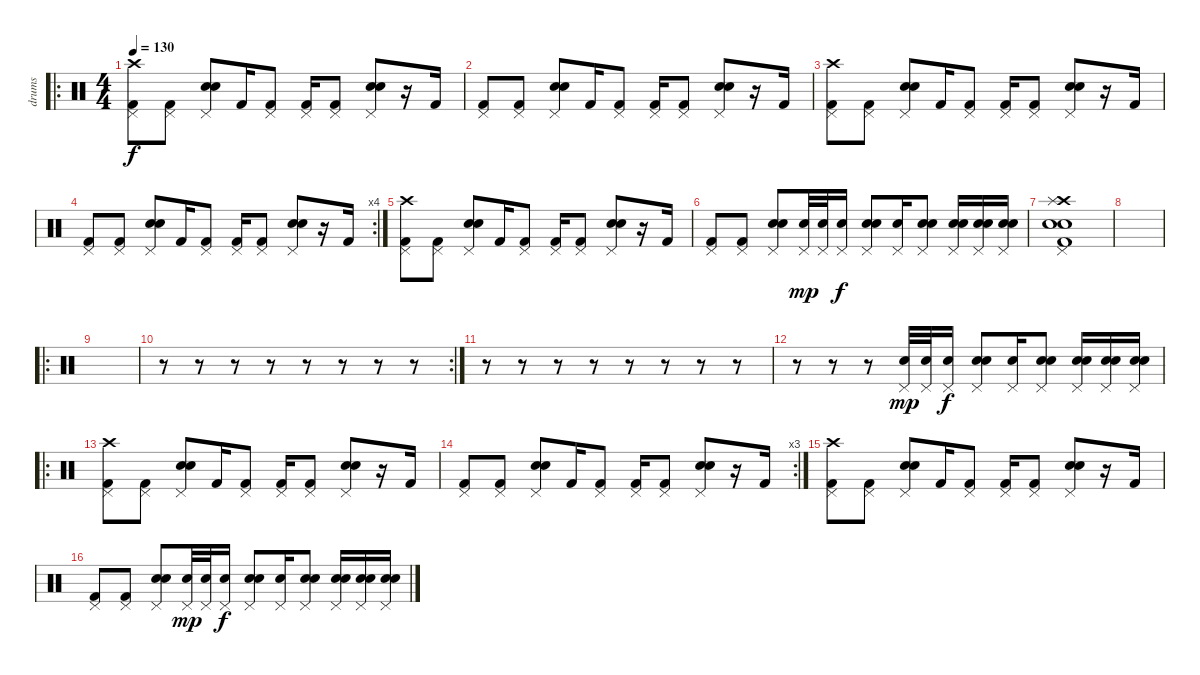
\track ("drums" "drums") {instrument percussion}
\staff {score}
\articulation defaults
\ro
\ts (4 4)
\tempo 130
\clef neutral
\ks c
("Crash high (hit)" "Kick (hit) 2" "Pedal Hi-Hat (hit)").8{dy f} ("Kick (hit) 2" "Pedal Hi-Hat (hit)").8 ("Electric Snare (hit)" "Snare (hit) 2" "Pedal Hi-Hat (hit)").8 "Kick (hit) 2".16 ("Kick (hit) 2" "Pedal Hi-Hat (hit)").8 ("Kick (hit) 2" "Pedal Hi-Hat (hit)").16 ("Kick (hit) 2" "Pedal Hi-Hat (hit)").8 ("Electric Snare (hit)" "Snare (hit) 2" "Pedal Hi-Hat (hit)").8 r.16 "Kick (hit) 2".16 |
("Kick (hit) 2" "Pedal Hi-Hat (hit)").8 ("Kick (hit) 2" "Pedal Hi-Hat (hit)").8 ("Electric Snare (hit)" "Snare (hit) 2" "Pedal Hi-Hat (hit)").8 "Kick (hit) 2".16 ("Kick (hit) 2" "Pedal Hi-Hat (hit)").8 ("Kick (hit) 2" "Pedal Hi-Hat (hit)").16 ("Kick (hit) 2" "Pedal Hi-Hat (hit)").8 ("Electric Snare (hit)" "Snare (hit) 2" "Pedal Hi-Hat (hit)").8 r.16 "Kick (hit) 2".16 |
("Crash high (hit)" "Kick (hit) 2" "Pedal Hi-Hat (hit)").8 ("Kick (hit) 2" "Pedal Hi-Hat (hit)").8 ("Electric Snare (hit)" "Snare (hit) 2" "Pedal Hi-Hat (hit)").8 "Kick (hit) 2".16 ("Kick (hit) 2" "Pedal Hi-Hat (hit)").8 ("Kick (hit) 2" "Pedal Hi-Hat (hit)").16 ("Kick (hit) 2" "Pedal Hi-Hat (hit)").8 ("Electric Snare (hit)" "Snare (hit) 2" "Pedal Hi-Hat (hit)").8 r.16 "Kick (hit) 2".16 |
\rc 4
("Kick (hit) 2" "Pedal Hi-Hat (hit)").8 ("Kick (hit) 2" "Pedal Hi-Hat (hit)").8 ("Electric Snare (hit)" "Snare (hit) 2" "Pedal Hi-Hat (hit)").8 "Kick (hit) 2".16 ("Kick (hit) 2" "Pedal Hi-Hat (hit)").8 ("Kick (hit) 2" "Pedal Hi-Hat (hit)").16 ("Kick (hit) 2" "Pedal Hi-Hat (hit)").8 ("Electric Snare (hit)" "Snare (hit) 2" "Pedal Hi-Hat (hit)").8 r.16 "Kick (hit) 2".16 |
("Crash high (hit)" "Kick (hit) 2" "Pedal Hi-Hat (hit)").8 ("Kick (hit) 2" "Pedal Hi-Hat (hit)").8 ("Electric Snare (hit)" "Snare (hit) 2" "Pedal Hi-Hat (hit)").8 "Kick (hit) 2".16 ("Kick (hit) 2" "Pedal Hi-Hat (hit)").8 ("Kick (hit) 2" "Pedal Hi-Hat (hit)").16 ("Kick (hit) 2" "Pedal Hi-Hat (hit)").8 ("Electric Snare (hit)" "Snare (hit) 2" "Pedal Hi-Hat (hit)").8 r.16 "Kick (hit) 2".16 |
("Kick (hit) 2" "Pedal Hi-Hat (hit)").8 ("Kick (hit) 2" "Pedal Hi-Hat (hit)").8 ("Electric Snare (hit)" "Snare (hit) 2" "Pedal Hi-Hat (hit)").8 ("Electric Snare (hit)" "Pedal Hi-Hat (hit)").32{dy mp} ("Electric Snare (hit)" "Pedal Hi-Hat (hit)").32 ("Electric Snare (hit)" "Pedal Hi-Hat (hit)").16{dy f} ("Snare (hit) 2" "Electric Snare (hit)" "Pedal Hi-Hat (hit)").8 ("Electric Snare (hit)" "Pedal Hi-Hat (hit)").16 ("Snare (hit) 2" "Electric Snare (hit)" "Pedal Hi-Hat (hit)").8 ("Snare (hit) 2" "Electric Snare (hit)" "Pedal Hi-Hat (hit)").16 ("Snare (hit) 2" "Electric Snare (hit)" "Pedal Hi-Hat (hit)").16 ("Snare (hit) 2" "Electric Snare (hit)" "Pedal Hi-Hat (hit)").16 |
("Crash high (hit)" "Splash (hit)" "Kick (hit) 2" "Snare (hit) 2" "Electric Snare (hit)" "Pedal Hi-Hat (hit)").1 |
|
\ro
|
\rc 2
r.8 r.8 r.8 r.8 r.8 r.8 r.8 r.8 |
r.8 r.8 r.8 r.8 r.8 r.8 r.8 r.8 |
r.8 r.8 r.8 ("Electric Snare (hit)" "Pedal Hi-Hat (hit)").32{dy mp} ("Electric Snare (hit)" "Pedal Hi-Hat (hit)").32 ("Electric Snare (hit)" "Pedal Hi-Hat (hit)").16{dy f} ("Snare (hit) 2" "Electric Snare (hit)" "Pedal Hi-Hat (hit)").8 ("Electric Snare (hit)" "Pedal Hi-Hat (hit)").16 ("Snare (hit) 2" "Electric Snare (hit)" "Pedal Hi-Hat (hit)").8 ("Snare (hit) 2" "Electric Snare (hit)" "Pedal Hi-Hat (hit)").16 ("Snare (hit) 2" "Electric Snare (hit)" "Pedal Hi-Hat (hit)").16 ("Snare (hit) 2" "Electric Snare (hit)" "Pedal Hi-Hat (hit)").16 |
\ro
("Crash high (hit)" "Kick (hit) 2" "Pedal Hi-Hat (hit)").8 ("Kick (hit) 2" "Pedal Hi-Hat (hit)").8 ("Electric Snare (hit)" "Snare (hit) 2" "Pedal Hi-Hat (hit)").8 "Kick (hit) 2".16 ("Kick (hit) 2" "Pedal Hi-Hat (hit)").8 ("Kick (hit) 2" "Pedal Hi-Hat (hit)").16 ("Kick (hit) 2" "Pedal Hi-Hat (hit)").8 ("Electric Snare (hit)" "Snare (hit) 2" "Pedal Hi-Hat (hit)").8 r.16 "Kick (hit) 2".16 |
\rc 3
("Kick (hit) 2" "Pedal Hi-Hat (hit)").8 ("Kick (hit) 2" "Pedal Hi-Hat (hit)").8 ("Electric Snare (hit)" "Snare (hit) 2" "Pedal Hi-Hat (hit)").8 "Kick (hit) 2".16 ("Kick (hit) 2" "Pedal Hi-Hat (hit)").8 ("Kick (hit) 2" "Pedal Hi-Hat (hit)").16 ("Kick (hit) 2" "Pedal Hi-Hat (hit)").8 ("Electric Snare (hit)" "Snare (hit) 2" "Pedal Hi-Hat (hit)").8 r.16 "Kick (hit) 2".16 |
("Crash high (hit)" "Kick (hit) 2" "Pedal Hi-Hat (hit)").8 ("Kick (hit) 2" "Pedal Hi-Hat (hit)").8 ("Electric Snare (hit)" "Snare (hit) 2" "Pedal Hi-Hat (hit)").8 "Kick (hit) 2".16 ("Kick (hit) 2" "Pedal Hi-Hat (hit)").8 ("Kick (hit) 2" "Pedal Hi-Hat (hit)").16 ("Kick (hit) 2" "Pedal Hi-Hat (hit)").8 ("Electric Snare (hit)" "Snare (hit) 2" "Pedal Hi-Hat (hit)").8 r.16 "Kick (hit) 2".16 |
("Kick (hit) 2" "Pedal Hi-Hat (hit)").8 ("Kick (hit) 2" "Pedal Hi-Hat (hit)").8 ("Electric Snare (hit)" "Snare (hit) 2" "Pedal Hi-Hat (hit)").8 ("Electric Snare (hit)" "Pedal Hi-Hat (hit)").32{dy mp} ("Electric Snare (hit)" "Pedal Hi-Hat (hit)").32 ("Electric Snare (hit)" "Pedal Hi-Hat (hit)").16{dy f} ("Snare (hit) 2" "Electric Snare (hit)" "Pedal Hi-Hat (hit)").8 ("Electric Snare (hit)" "Pedal Hi-Hat (hit)").16 ("Snare (hit) 2" "Electric Snare (hit)" "Pedal Hi-Hat (hit)").8 ("Snare (hit) 2" "Electric Snare (hit)" "Pedal Hi-Hat (hit)").16 ("Snare (hit) 2" "Electric Snare (hit)" "Pedal Hi-Hat (hit)").16 ("Snare (hit) 2" "Electric Snare (hit)" "Pedal Hi-Hat (hit)").16
